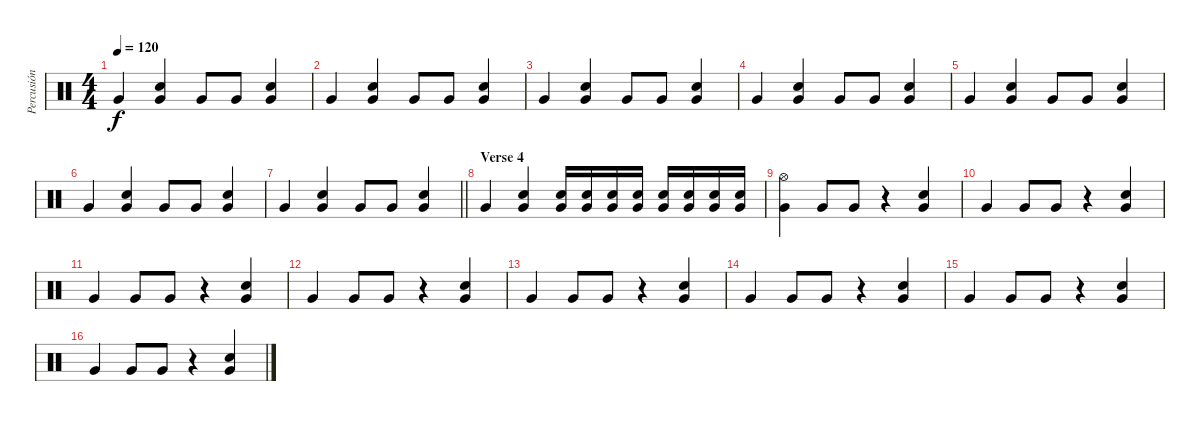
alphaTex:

\track ("Percusión" "Percusión") {instrument percussion}
\staff {score}
\articulation defaults
\ts (4 4)
\tempo 120
\clef neutral
\ks c "Very Low Tom (hit)".4{dy f}
("Electric Snare (hit)" "Very Low Tom (hit)").4 "Very Low Tom (hit)".8 "Very Low Tom (hit)".8 ("Electric Snare (hit)" "Very Low Tom (hit)").4 |
"Very Low Tom (hit)".4 ("Electric Snare (hit)" "Very Low Tom (hit)").4 "Very Low Tom (hit)".8 "Very Low Tom (hit)".8 ("Electric Snare (hit)" "Very Low Tom (hit)").4 |
"Very Low Tom (hit)".4 ("Electric Snare (hit)" "Very Low Tom (hit)").4 "Very Low Tom (hit)".8 "Very Low Tom (hit)".8 ("Electric Snare (hit)" "Very Low Tom (hit)").4 |
"Very Low Tom (hit)".4 ("Electric Snare (hit)" "Very Low Tom (hit)").4 "Very Low Tom (hit)".8 "Very Low Tom (hit)".8 ("Electric Snare (hit)" "Very Low Tom (hit)").4 |
"Very Low Tom (hit)".4 ("Electric Snare (hit)" "Very Low Tom (hit)").4 "Very Low Tom (hit)".8 "Very Low Tom (hit)".8 ("Electric Snare (hit)" "Very Low Tom (hit)").4 |
"Very Low Tom (hit)".4 ("Electric Snare (hit)" "Very Low Tom (hit)").4 "Very Low Tom (hit)".8 "Very Low Tom (hit)".8 ("Electric Snare (hit)" "Very Low Tom (hit)").4 |
\barLineRight lightlight "Very Low Tom (hit)".4
("Electric Snare (hit)" "Very Low Tom (hit)").4 "Very Low Tom (hit)".8 "Very Low Tom (hit)".8 ("Electric Snare (hit)" "Very Low Tom (hit)").4 |
\section ("" "Verse 4")
"Very Low Tom (hit)".4 ("Electric Snare (hit)" "Very Low Tom (hit)").4 ("Electric Snare (hit)" "Very Low Tom (hit)").16 ("Electric Snare (hit)" "Very Low Tom (hit)").16 ("Electric Snare (hit)" "Very Low Tom (hit)").16 ("Electric Snare (hit)" "Very Low Tom (hit)").16 ("Electric Snare (hit)" "Very Low Tom (hit)").16 ("Electric Snare (hit)" "Very Low Tom (hit)").16 ("Electric Snare (hit)" "Very Low Tom (hit)").16 ("Electric Snare (hit)" "Very Low Tom (hit)").16 |
("Very Low Tom (hit)" "Hi-Hat (open)").4 "Very Low Tom (hit)".8 "Very Low Tom (hit)".8 r.4 ("Very Low Tom (hit)" "Electric Snare (hit)").4 |
"Very Low Tom (hit)".4 "Very Low Tom (hit)".8 "Very Low Tom (hit)".8 r.4 ("Very Low Tom (hit)" "Electric Snare (hit)").4 |
"Very Low Tom (hit)".4 "Very Low Tom (hit)".8 "Very Low Tom (hit)".8 r.4 ("Very Low Tom (hit)" "Electric Snare (hit)").4 |
"Very Low Tom (hit)".4 "Very Low Tom (hit)".8 "Very Low Tom (hit)".8 r.4 ("Very Low Tom (hit)" "Electric Snare (hit)").4 |
"Very Low Tom (hit)".4 "Very Low Tom (hit)".8 "Very Low Tom (hit)".8 r.4 ("Very Low Tom (hit)" "Electric Snare (hit)").4 |
"Very Low Tom (hit)".4 "Very Low Tom (hit)".8 "Very Low Tom (hit)".8 r.4 ("Very Low Tom (hit)" "Electric Snare (hit)").4 |
"Very Low Tom (hit)".4 "Very Low Tom (hit)".8 "Very Low Tom (hit)".8 r.4 ("Very Low Tom (hit)" "Electric Snare (hit)").4 |
"Very Low Tom (hit)".4 "Very Low Tom (hit)".8 "Very Low Tom (hit)".8 r.4 ("Very Low Tom (hit)" "Electric Snare (hit)").4
